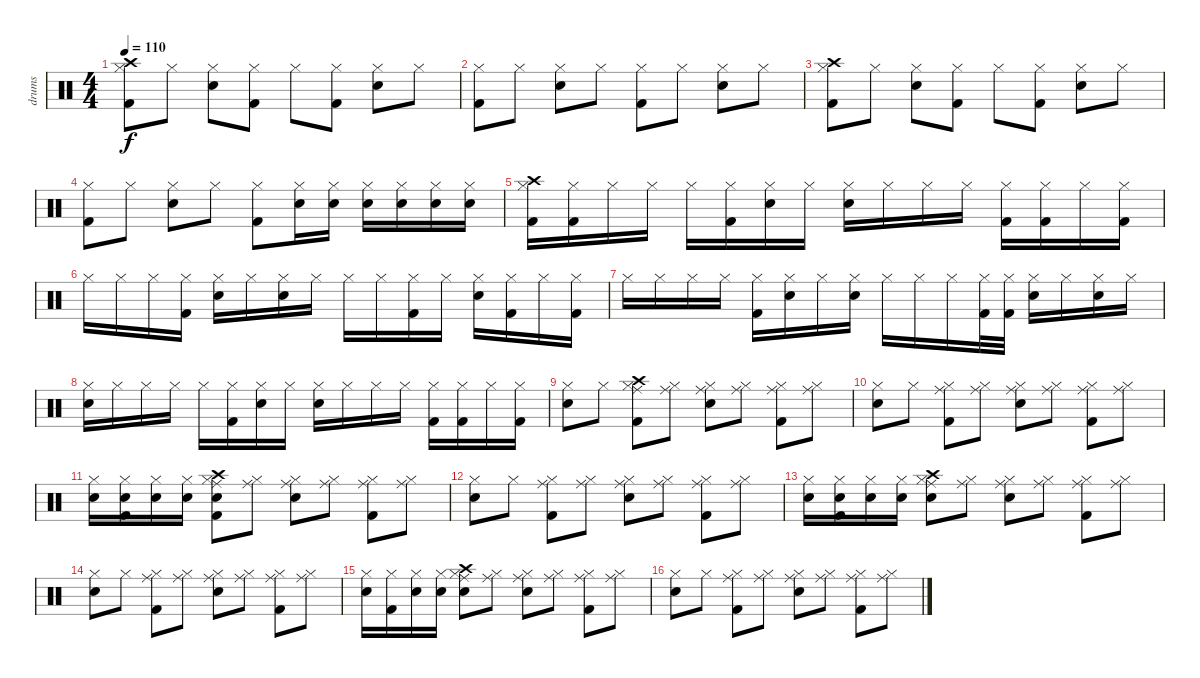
\track ("drums" "drums") {instrument percussion}
\staff {score}
\articulation defaults
\ts (4 4)
\tempo 110
\clef neutral
\ks c
("Hi-Hat (closed)" "Crash high (hit)" "Kick (hit) 2").8{dy f} "Hi-Hat (closed)".8 ("Hi-Hat (closed)" "Electric Snare (hit)").8 ("Hi-Hat (closed)" "Kick (hit) 2").8 "Hi-Hat (closed)".8 ("Hi-Hat (closed)" "Kick (hit) 2").8 ("Hi-Hat (closed)" "Electric Snare (hit)").8 "Hi-Hat (closed)".8 |
("Hi-Hat (closed)" "Kick (hit) 2").8 "Hi-Hat (closed)".8 ("Hi-Hat (closed)" "Electric Snare (hit)").8 "Hi-Hat (closed)".8 ("Hi-Hat (closed)" "Kick (hit) 2").8 "Hi-Hat (closed)".8 ("Hi-Hat (closed)" "Electric Snare (hit)").8 "Hi-Hat (closed)".8 |
("Hi-Hat (closed)" "Crash high (hit)" "Kick (hit) 2").8 "Hi-Hat (closed)".8 ("Hi-Hat (closed)" "Electric Snare (hit)").8 ("Hi-Hat (closed)" "Kick (hit) 2").8 "Hi-Hat (closed)".8 ("Hi-Hat (closed)" "Kick (hit) 2").8 ("Hi-Hat (closed)" "Electric Snare (hit)").8 "Hi-Hat (closed)".8 |
("Hi-Hat (closed)" "Kick (hit) 2").8 "Hi-Hat (closed)".8 ("Hi-Hat (closed)" "Electric Snare (hit)").8 "Hi-Hat (closed)".8 ("Hi-Hat (closed)" "Kick (hit) 2").8 ("Hi-Hat (closed)" "Electric Snare (hit)").16 ("Hi-Hat (closed)" "Electric Snare (hit)").16 ("Hi-Hat (closed)" "Electric Snare (hit)").16 ("Hi-Hat (closed)" "Electric Snare (hit)").16 ("Hi-Hat (closed)" "Electric Snare (hit)").16 ("Hi-Hat (closed)" "Electric Snare (hit)").16 |
("Hi-Hat (closed)" "Crash high (hit)" "Kick (hit) 2").16 ("Hi-Hat (closed)" "Kick (hit) 2").16 "Hi-Hat (closed)".16 "Hi-Hat (closed)".16 "Hi-Hat (closed)".16 ("Hi-Hat (closed)" "Kick (hit) 2").16 ("Hi-Hat (closed)" "Electric Snare (hit)").16 "Hi-Hat (closed)".16 ("Hi-Hat (closed)" "Electric Snare (hit)").16 "Hi-Hat (closed)".16 "Hi-Hat (closed)".16 "Hi-Hat (closed)".16 ("Hi-Hat (closed)" "Kick (hit) 2").16 ("Hi-Hat (closed)" "Kick (hit) 2").16 "Hi-Hat (closed)".16 ("Hi-Hat (closed)" "Kick (hit) 2").16 |
"Hi-Hat (closed)".16 "Hi-Hat (closed)".16 "Hi-Hat (closed)".16 ("Hi-Hat (closed)" "Kick (hit) 2").16 ("Hi-Hat (closed)" "Electric Snare (hit)").16 "Hi-Hat (closed)".16 ("Hi-Hat (closed)" "Electric Snare (hit)").16 "Hi-Hat (closed)".16 "Hi-Hat (closed)".16 "Hi-Hat (closed)".16 ("Hi-Hat (closed)" "Kick (hit) 2").16 "Hi-Hat (closed)".16 ("Hi-Hat (closed)" "Electric Snare (hit)").16 ("Hi-Hat (closed)" "Kick (hit) 2").16 "Hi-Hat (closed)".16 ("Hi-Hat (closed)" "Kick (hit) 2").16 |
"Hi-Hat (closed)".16 "Hi-Hat (closed)".16 "Hi-Hat (closed)".16 "Hi-Hat (closed)".16 ("Hi-Hat (closed)" "Kick (hit) 2").16 ("Hi-Hat (closed)" "Electric Snare (hit)").16 "Hi-Hat (closed)".16 ("Hi-Hat (closed)" "Electric Snare (hit)").16 "Hi-Hat (closed)".16 "Hi-Hat (closed)".16 "Hi-Hat (closed)".16 ("Hi-Hat (closed)" "Kick (hit) 2").32 ("Hi-Hat (closed)" "Kick (hit) 2").32 ("Hi-Hat (closed)" "Electric Snare (hit)").16 "Hi-Hat (closed)".16 ("Hi-Hat (closed)" "Electric Snare (hit)").16 "Hi-Hat (closed)".16 |
("Hi-Hat (closed)" "Electric Snare (hit)").16 "Hi-Hat (closed)".16 "Hi-Hat (closed)".16 "Hi-Hat (closed)".16 "Hi-Hat (closed)".16 ("Hi-Hat (closed)" "Kick (hit) 2").16 ("Hi-Hat (closed)" "Electric Snare (hit)").16 "Hi-Hat (closed)".16 ("Hi-Hat (closed)" "Electric Snare (hit)").16 "Hi-Hat (closed)".16 "Hi-Hat (closed)".16 "Hi-Hat (closed)".16 ("Hi-Hat (closed)" "Kick (hit) 2").16 ("Hi-Hat (closed)" "Kick (hit) 2").16 "Hi-Hat (closed)".16 ("Hi-Hat (closed)" "Kick (hit) 2").16 |
("Hi-Hat (closed)" "Electric Snare (hit)").8 "Hi-Hat (closed)".8 ("Hi-Hat (closed)" "Ride (middle)" "Crash high (hit)" "Kick (hit) 2").8 ("Hi-Hat (closed)" "Ride (middle)").8 ("Hi-Hat (closed)" "Ride (middle)" "Electric Snare (hit)").8 ("Hi-Hat (closed)" "Ride (middle)").8 ("Hi-Hat (closed)" "Ride (middle)" "Kick (hit) 2").8 ("Hi-Hat (closed)" "Ride (middle)").8 |
("Hi-Hat (closed)" "Electric Snare (hit)").8 "Hi-Hat (closed)".8 ("Hi-Hat (closed)" "Ride (middle)" "Kick (hit) 2").8 ("Hi-Hat (closed)" "Ride (middle)").8 ("Hi-Hat (closed)" "Ride (middle)" "Electric Snare (hit)").8 ("Hi-Hat (closed)" "Ride (middle)").8 ("Hi-Hat (closed)" "Ride (middle)" "Kick (hit) 2").8 ("Hi-Hat (closed)" "Ride (middle)").8 |
("Hi-Hat (closed)" "Electric Snare (hit)").16 ("Hi-Hat (closed)" "Electric Snare (hit)" "Kick (hit) 2").16 ("Hi-Hat (closed)" "Electric Snare (hit)").16 ("Hi-Hat (closed)" "Electric Snare (hit)").16 ("Hi-Hat (closed)" "Ride (middle)" "Electric Snare (hit)" "Crash high (hit)" "Kick (hit) 2").8 ("Hi-Hat (closed)" "Ride (middle)").8 ("Hi-Hat (closed)" "Ride (middle)" "Electric Snare (hit)").8 ("Hi-Hat (closed)" "Ride (middle)").8 ("Hi-Hat (closed)" "Ride (middle)" "Kick (hit) 2").8 ("Hi-Hat (closed)" "Ride (middle)").8 |
("Hi-Hat (closed)" "Electric Snare (hit)").8 "Hi-Hat (closed)".8 ("Hi-Hat (closed)" "Ride (middle)" "Kick (hit) 2").8 ("Hi-Hat (closed)" "Ride (middle)").8 ("Hi-Hat (closed)" "Ride (middle)" "Electric Snare (hit)").8 ("Hi-Hat (closed)" "Ride (middle)").8 ("Hi-Hat (closed)" "Ride (middle)" "Kick (hit) 2").8 ("Hi-Hat (closed)" "Ride (middle)").8 |
("Hi-Hat (closed)" "Electric Snare (hit)").16 ("Hi-Hat (closed)" "Electric Snare (hit)" "Kick (hit) 2").16 ("Hi-Hat (closed)" "Electric Snare (hit)").16 ("Hi-Hat (closed)" "Electric Snare (hit)").16 ("Hi-Hat (closed)" "Ride (middle)" "Electric Snare (hit)" "Crash high (hit)").8 ("Hi-Hat (closed)" "Ride (middle)").8 ("Hi-Hat (closed)" "Ride (middle)" "Electric Snare (hit)").8 ("Hi-Hat (closed)" "Ride (middle)").8 ("Hi-Hat (closed)" "Ride (middle)" "Kick (hit) 2").8 ("Hi-Hat (closed)" "Ride (middle)").8 |
("Hi-Hat (closed)" "Electric Snare (hit)").8 "Hi-Hat (closed)".8 ("Hi-Hat (closed)" "Ride (middle)" "Kick (hit) 2").8 ("Hi-Hat (closed)" "Ride (middle)").8 ("Hi-Hat (closed)" "Ride (middle)" "Electric Snare (hit)").8 ("Hi-Hat (closed)" "Ride (middle)").8 ("Hi-Hat (closed)" "Ride (middle)" "Kick (hit) 2").8 ("Hi-Hat (closed)" "Ride (middle)").8 |
("Hi-Hat (closed)" "Electric Snare (hit)").16 ("Hi-Hat (closed)" "Kick (hit) 2").16 ("Hi-Hat (closed)" "Electric Snare (hit)").16 ("Hi-Hat (closed)" "Electric Snare (hit)").16 ("Hi-Hat (closed)" "Ride (middle)" "Electric Snare (hit)" "Crash high (hit)").8 ("Hi-Hat (closed)" "Ride (middle)").8 ("Hi-Hat (closed)" "Ride (middle)" "Electric Snare (hit)").8 ("Hi-Hat (closed)" "Ride (middle)").8 ("Hi-Hat (closed)" "Ride (middle)" "Kick (hit) 2").8 ("Hi-Hat (closed)" "Ride (middle)").8 |
("Hi-Hat (closed)" "Electric Snare (hit)").8 "Hi-Hat (closed)".8 ("Hi-Hat (closed)" "Ride (middle)" "Kick (hit) 2").8 ("Hi-Hat (closed)" "Ride (middle)").8 ("Hi-Hat (closed)" "Ride (middle)" "Electric Snare (hit)").8 ("Hi-Hat (closed)" "Ride (middle)").8 ("Hi-Hat (closed)" "Ride (middle)" "Kick (hit) 2").8 ("Hi-Hat (closed)" "Ride (middle)").8
